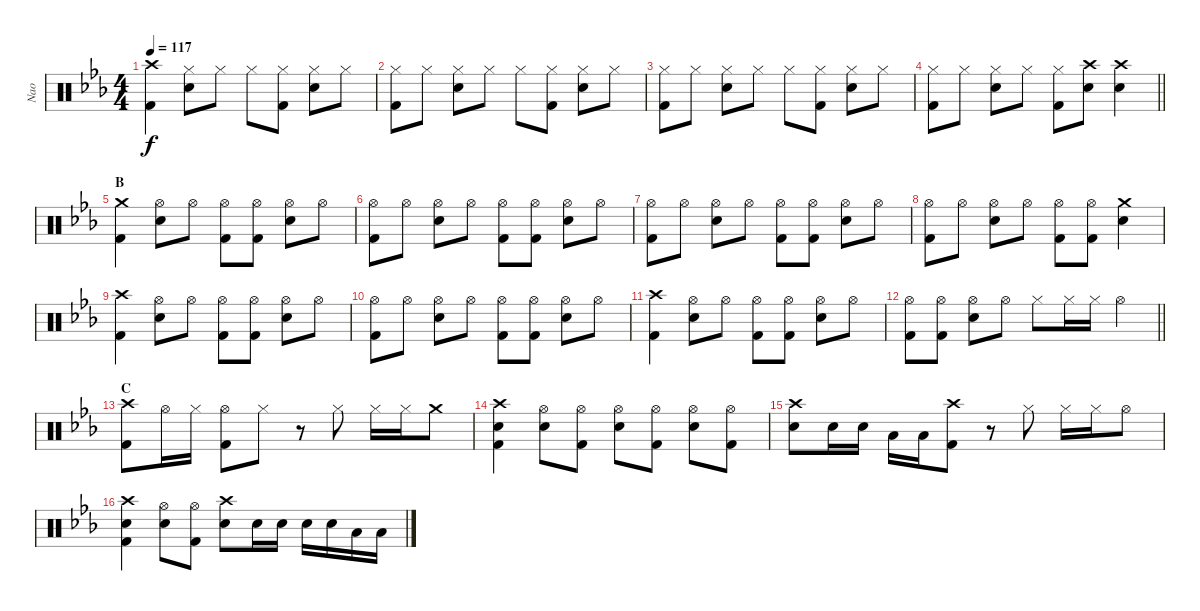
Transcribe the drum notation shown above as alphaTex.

\track ("Nao" "Nao") {instrument percussion}
\staff {score}
\articulation defaults
\ts (4 4)
\tempo 117
\clef neutral
\ks eb
("Crash high (hit)" "Kick (hit) 2").4{dy f} ("Hi-Hat (closed)" "Snare (hit) 2").8 "Hi-Hat (closed)".8 "Hi-Hat (closed)".8 ("Hi-Hat (closed)" "Kick (hit) 2").8 ("Hi-Hat (closed)" "Snare (hit) 2").8 "Hi-Hat (closed)".8 |
("Hi-Hat (closed)" "Kick (hit) 2").8 "Hi-Hat (closed)".8 ("Hi-Hat (closed)" "Snare (hit) 2").8 "Hi-Hat (closed)".8 "Hi-Hat (closed)".8 ("Hi-Hat (closed)" "Kick (hit) 2").8 ("Hi-Hat (closed)" "Snare (hit) 2").8 "Hi-Hat (closed)".8 |
("Hi-Hat (closed)" "Kick (hit) 2").8 "Hi-Hat (closed)".8 ("Hi-Hat (closed)" "Snare (hit) 2").8 "Hi-Hat (closed)".8 "Hi-Hat (closed)".8 ("Hi-Hat (closed)" "Kick (hit) 2").8 ("Hi-Hat (closed)" "Snare (hit) 2").8 "Hi-Hat (closed)".8 |
\barLineRight lightlight
("Hi-Hat (closed)" "Kick (hit) 2").8 "Hi-Hat (closed)".8 ("Hi-Hat (closed)" "Snare (hit) 2").8 "Hi-Hat (closed)".8 ("Hi-Hat (closed)" "Kick (hit) 2").8 ("Crash high (hit)" "Snare (hit) 2").8 ("Crash high (hit)" "Snare (hit) 2").4 |
\section ("" "B")
("Crash medium (hit)" "Kick (hit) 2").4 ("Hi-Hat (open)" "Snare (hit) 2").8 "Hi-Hat (open)".8 ("Hi-Hat (open)" "Kick (hit) 2").8 ("Hi-Hat (open)" "Kick (hit) 2").8 ("Hi-Hat (open)" "Snare (hit) 2").8 "Hi-Hat (open)".8 |
("Hi-Hat (open)" "Kick (hit) 2").8 "Hi-Hat (open)".8 ("Hi-Hat (open)" "Snare (hit) 2").8 "Hi-Hat (open)".8 ("Hi-Hat (open)" "Kick (hit) 2").8 ("Hi-Hat (open)" "Kick (hit) 2").8 ("Hi-Hat (open)" "Snare (hit) 2").8 "Hi-Hat (open)".8 |
("Hi-Hat (open)" "Kick (hit) 2").8 "Hi-Hat (open)".8 ("Hi-Hat (open)" "Snare (hit) 2").8 "Hi-Hat (open)".8 ("Hi-Hat (open)" "Kick (hit) 2").8 ("Hi-Hat (open)" "Kick (hit) 2").8 ("Hi-Hat (open)" "Snare (hit) 2").8 "Hi-Hat (open)".8 |
("Hi-Hat (open)" "Kick (hit) 2").8 "Hi-Hat (open)".8 ("Hi-Hat (open)" "Snare (hit) 2").8 "Hi-Hat (open)".8 ("Hi-Hat (open)" "Kick (hit) 2").8 ("Hi-Hat (open)" "Kick (hit) 2").8 ("Crash medium (hit)" "Snare (hit) 2").4 |
("Crash high (hit)" "Kick (hit) 2").4 ("Hi-Hat (open)" "Snare (hit) 2").8 "Hi-Hat (open)".8 ("Hi-Hat (open)" "Kick (hit) 2").8 ("Hi-Hat (open)" "Kick (hit) 2").8 ("Hi-Hat (open)" "Snare (hit) 2").8 "Hi-Hat (open)".8 |
("Hi-Hat (open)" "Kick (hit) 2").8 "Hi-Hat (open)".8 ("Hi-Hat (open)" "Snare (hit) 2").8 "Hi-Hat (open)".8 ("Hi-Hat (open)" "Kick (hit) 2").8 ("Hi-Hat (open)" "Kick (hit) 2").8 ("Hi-Hat (open)" "Snare (hit) 2").8 "Hi-Hat (open)".8 |
("Crash high (hit)" "Kick (hit) 2").4 ("Hi-Hat (open)" "Snare (hit) 2").8 "Hi-Hat (open)".8 ("Hi-Hat (open)" "Kick (hit) 2").8 ("Hi-Hat (open)" "Kick (hit) 2").8 ("Hi-Hat (open)" "Snare (hit) 2").8 "Hi-Hat (open)".8 |
\barLineRight lightlight
("Hi-Hat (open)" "Kick (hit) 2").8 ("Hi-Hat (open)" "Kick (hit) 2").8 ("Hi-Hat (open)" "Snare (hit) 2").8 "Hi-Hat (open)".8 "Hi-Hat (closed)".8 "Hi-Hat (closed)".16 "Hi-Hat (closed)".16 "Hi-Hat (open)".4 |
\section ("" "C")
("Crash high (hit)" "Kick (hit) 2").8 "Hi-Hat (open)".16 "Hi-Hat (closed)".16 ("Hi-Hat (open)" "Kick (hit) 2").8 "Hi-Hat (closed)".8 r.8 "Hi-Hat (closed)".8 "Hi-Hat (closed)".16 "Hi-Hat (closed)".16 "Crash medium (hit)".8 |
("Crash high (hit)" "Snare (hit) 2" "Kick (hit) 2").4 ("Hi-Hat (open)" "Snare (hit) 2").8 ("Hi-Hat (open)" "Kick (hit) 2").8 ("Hi-Hat (open)" "Snare (hit) 2").8 ("Hi-Hat (open)" "Kick (hit) 2").8 ("Hi-Hat (open)" "Snare (hit) 2").8 ("Hi-Hat (open)" "Kick (hit) 2").8 |
("Crash high (hit)" "Snare (hit) 2").8 "Snare (hit) 2".16 "Snare (hit) 2".16 "Low Tom (hit)".16 "Low Tom (hit)".16 ("Crash high (hit)" "Kick (hit) 2").8 r.8 "Hi-Hat (closed)".8 "Hi-Hat (closed)".16 "Hi-Hat (closed)".16 "Hi-Hat (open)".8 |
("Crash high (hit)" "Snare (hit) 2" "Kick (hit) 2").4 ("Hi-Hat (open)" "Snare (hit) 2").8 ("Hi-Hat (open)" "Kick (hit) 2").8 ("Crash high (hit)" "Snare (hit) 2").8 "Snare (hit) 2".16 "Snare (hit) 2".16 "Snare (hit) 2".16 "Snare (hit) 2".16 "Low Tom (hit)".16 "Low Tom (hit)".16
